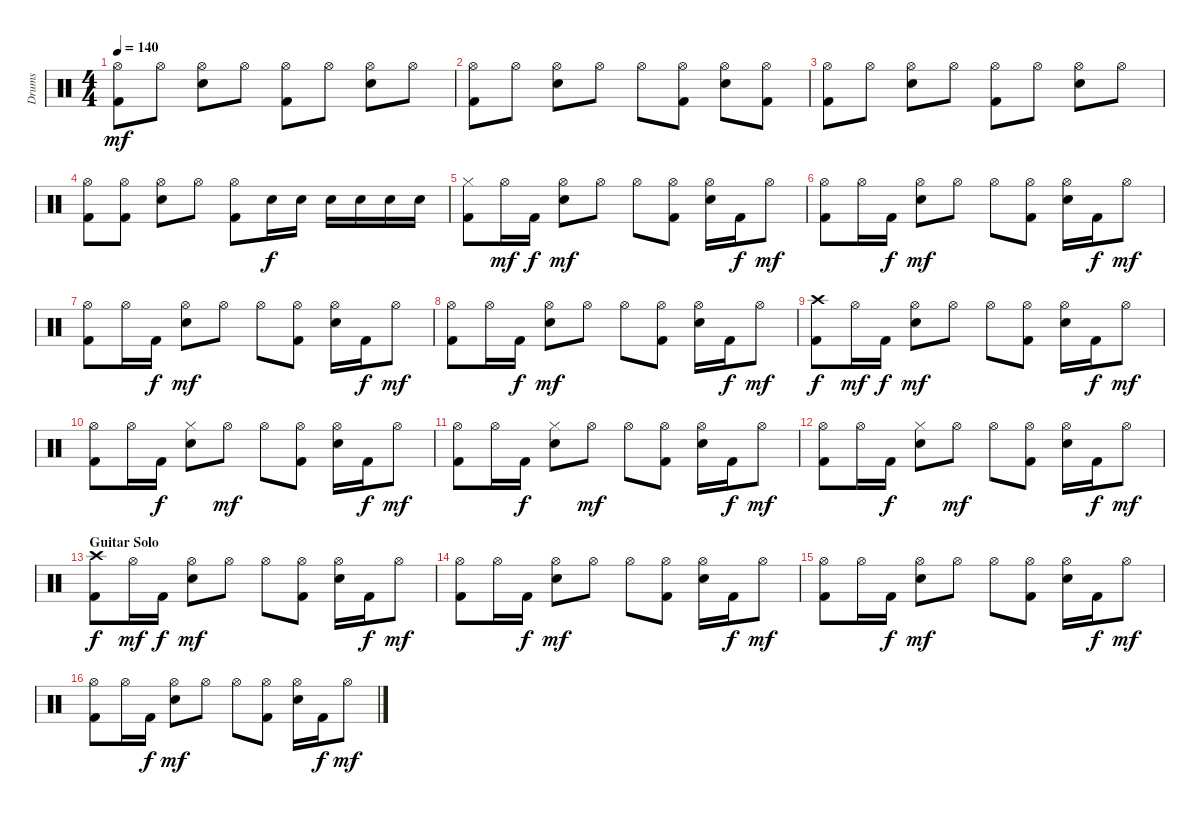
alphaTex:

\track ("Drums" "Drums") {instrument percussion}
\staff {score}
\articulation defaults
\ts (4 4)
\tempo 140
\clef neutral
\ks c
("Hi-Hat (open)" "Kick (hit) 2").8{dy mf} "Hi-Hat (open)".8 ("Hi-Hat (open)" "Electric Snare (hit)").8 "Hi-Hat (open)".8 ("Hi-Hat (open)" "Kick (hit) 2").8 "Hi-Hat (open)".8 ("Hi-Hat (open)" "Electric Snare (hit)").8 "Hi-Hat (open)".8 |
("Hi-Hat (open)" "Kick (hit) 2").8 "Hi-Hat (open)".8 ("Hi-Hat (open)" "Electric Snare (hit)").8 "Hi-Hat (open)".8 "Hi-Hat (open)".8 ("Hi-Hat (open)" "Kick (hit) 2").8 ("Hi-Hat (open)" "Electric Snare (hit)").8 ("Hi-Hat (open)" "Kick (hit) 2").8 |
("Hi-Hat (open)" "Kick (hit) 2").8 "Hi-Hat (open)".8 ("Hi-Hat (open)" "Electric Snare (hit)").8 "Hi-Hat (open)".8 ("Hi-Hat (open)" "Kick (hit) 2").8 "Hi-Hat (open)".8 ("Hi-Hat (open)" "Electric Snare (hit)").8 "Hi-Hat (open)".8 |
("Hi-Hat (open)" "Kick (hit) 2").8 ("Hi-Hat (open)" "Kick (hit) 2").8 ("Hi-Hat (open)" "Electric Snare (hit)").8 "Hi-Hat (open)".8 ("Hi-Hat (open)" "Kick (hit) 2").8 "Electric Snare (hit)".16{dy f} "Electric Snare (hit)".16 "Electric Snare (hit)".16 "Electric Snare (hit)".16 "Electric Snare (hit)".16 "Electric Snare (hit)".16 |
("Hi-Hat (closed)" "Kick (hit) 2").8 "Hi-Hat (open)".16{dy mf} "Kick (hit) 2".16{dy f} ("Hi-Hat (open)" "Electric Snare (hit)").8{dy mf} "Hi-Hat (open)".8 "Hi-Hat (open)".8 ("Hi-Hat (open)" "Kick (hit) 2").8 ("Hi-Hat (open)" "Electric Snare (hit)").16 "Kick (hit) 2".16{dy f} "Hi-Hat (open)".8{dy mf} |
("Hi-Hat (open)" "Kick (hit) 2").8 "Hi-Hat (open)".16 "Kick (hit) 2".16{dy f} ("Hi-Hat (open)" "Electric Snare (hit)").8{dy mf} "Hi-Hat (open)".8 "Hi-Hat (open)".8 ("Hi-Hat (open)" "Kick (hit) 2").8 ("Hi-Hat (open)" "Electric Snare (hit)").16 "Kick (hit) 2".16{dy f} "Hi-Hat (open)".8{dy mf} |
("Hi-Hat (open)" "Kick (hit) 2").8 "Hi-Hat (open)".16 "Kick (hit) 2".16{dy f} ("Hi-Hat (open)" "Electric Snare (hit)").8{dy mf} "Hi-Hat (open)".8 "Hi-Hat (open)".8 ("Hi-Hat (open)" "Kick (hit) 2").8 ("Hi-Hat (open)" "Electric Snare (hit)").16 "Kick (hit) 2".16{dy f} "Hi-Hat (open)".8{dy mf} |
("Hi-Hat (open)" "Kick (hit) 2").8 "Hi-Hat (open)".16 "Kick (hit) 2".16{dy f} ("Hi-Hat (open)" "Electric Snare (hit)").8{dy mf} "Hi-Hat (open)".8 "Hi-Hat (open)".8 ("Hi-Hat (open)" "Kick (hit) 2").8 ("Hi-Hat (open)" "Electric Snare (hit)").16 "Kick (hit) 2".16{dy f} "Hi-Hat (open)".8{dy mf} |
("Crash high (hit)" "Kick (hit) 2").8{dy f} "Hi-Hat (open)".16{dy mf} "Kick (hit) 2".16{dy f} ("Hi-Hat (open)" "Electric Snare (hit)").8{dy mf} "Hi-Hat (open)".8 "Hi-Hat (open)".8 ("Hi-Hat (open)" "Kick (hit) 2").8 ("Hi-Hat (open)" "Electric Snare (hit)").16 "Kick (hit) 2".16{dy f} "Hi-Hat (open)".8{dy mf} |
("Hi-Hat (open)" "Kick (hit) 2").8 "Hi-Hat (open)".16 "Kick (hit) 2".16{dy f} ("Hi-Hat (closed)" "Electric Snare (hit)").8 "Hi-Hat (open)".8{dy mf} "Hi-Hat (open)".8 ("Hi-Hat (open)" "Kick (hit) 2").8 ("Hi-Hat (open)" "Electric Snare (hit)").16 "Kick (hit) 2".16{dy f} "Hi-Hat (open)".8{dy mf} |
("Hi-Hat (open)" "Kick (hit) 2").8 "Hi-Hat (open)".16 "Kick (hit) 2".16{dy f} ("Hi-Hat (closed)" "Electric Snare (hit)").8 "Hi-Hat (open)".8{dy mf} "Hi-Hat (open)".8 ("Hi-Hat (open)" "Kick (hit) 2").8 ("Hi-Hat (open)" "Electric Snare (hit)").16 "Kick (hit) 2".16{dy f} "Hi-Hat (open)".8{dy mf} |
("Hi-Hat (open)" "Kick (hit) 2").8 "Hi-Hat (open)".16 "Kick (hit) 2".16{dy f} ("Hi-Hat (closed)" "Electric Snare (hit)").8 "Hi-Hat (open)".8{dy mf} "Hi-Hat (open)".8 ("Hi-Hat (open)" "Kick (hit) 2").8 ("Hi-Hat (open)" "Electric Snare (hit)").16 "Kick (hit) 2".16{dy f} "Hi-Hat (open)".8{dy mf} |
\section ("" "Guitar Solo")
("Crash high (hit)" "Kick (hit) 2").8{dy f} "Hi-Hat (open)".16{dy mf} "Kick (hit) 2".16{dy f} ("Hi-Hat (open)" "Electric Snare (hit)").8{dy mf} "Hi-Hat (open)".8 "Hi-Hat (open)".8 ("Hi-Hat (open)" "Kick (hit) 2").8 ("Hi-Hat (open)" "Electric Snare (hit)").16 "Kick (hit) 2".16{dy f} "Hi-Hat (open)".8{dy mf} |
("Hi-Hat (open)" "Kick (hit) 2").8 "Hi-Hat (open)".16 "Kick (hit) 2".16{dy f} ("Hi-Hat (open)" "Electric Snare (hit)").8{dy mf} "Hi-Hat (open)".8 "Hi-Hat (open)".8 ("Hi-Hat (open)" "Kick (hit) 2").8 ("Hi-Hat (open)" "Electric Snare (hit)").16 "Kick (hit) 2".16{dy f} "Hi-Hat (open)".8{dy mf} |
("Hi-Hat (open)" "Kick (hit) 2").8 "Hi-Hat (open)".16 "Kick (hit) 2".16{dy f} ("Hi-Hat (open)" "Electric Snare (hit)").8{dy mf} "Hi-Hat (open)".8 "Hi-Hat (open)".8 ("Hi-Hat (open)" "Kick (hit) 2").8 ("Hi-Hat (open)" "Electric Snare (hit)").16 "Kick (hit) 2".16{dy f} "Hi-Hat (open)".8{dy mf} |
("Hi-Hat (open)" "Kick (hit) 2").8 "Hi-Hat (open)".16 "Kick (hit) 2".16{dy f} ("Hi-Hat (open)" "Electric Snare (hit)").8{dy mf} "Hi-Hat (open)".8 "Hi-Hat (open)".8 ("Hi-Hat (open)" "Kick (hit) 2").8 ("Hi-Hat (open)" "Electric Snare (hit)").16 "Kick (hit) 2".16{dy f} "Hi-Hat (open)".8{dy mf}
